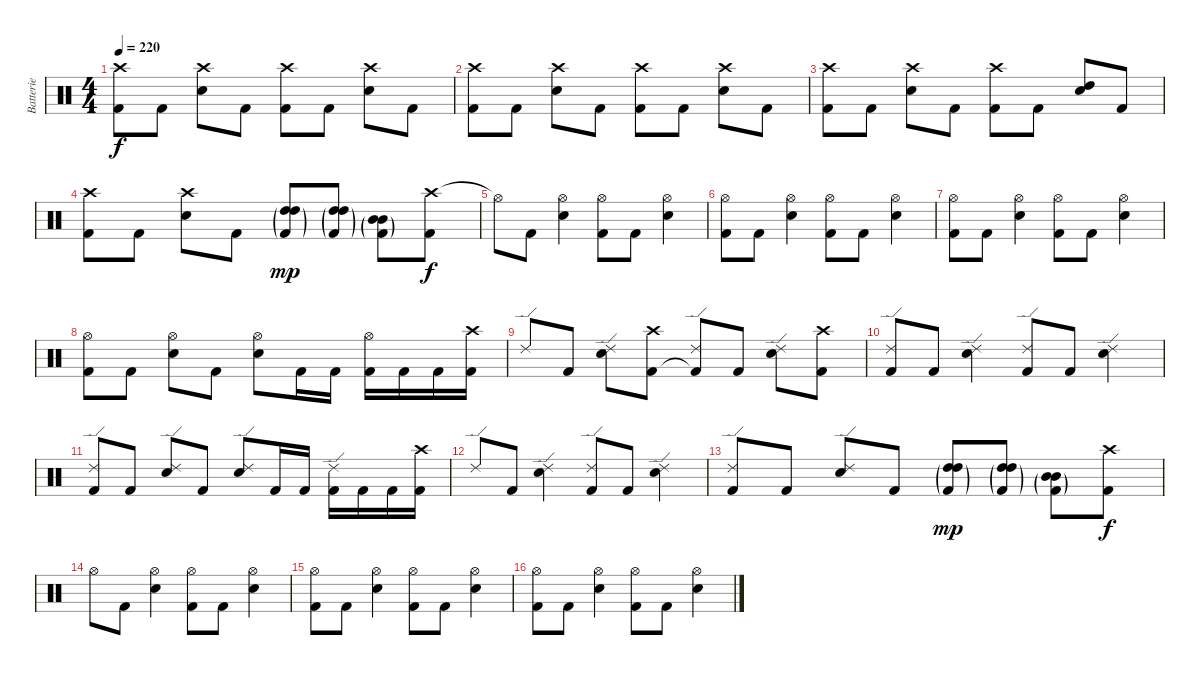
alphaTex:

\track ("Batterie" "Batterie") {instrument percussion}
\staff {score}
\articulation defaults
\ts (4 4)
\tempo 220
\clef neutral
\ks c
("Crash high (hit)" "Kick (hit) 2").8{dy f} "Kick (hit) 2".8 ("Crash high (hit)" "Electric Snare (hit)").8 "Kick (hit) 2".8 ("Crash high (hit)" "Kick (hit) 2").8 "Kick (hit) 2".8 ("Crash high (hit)" "Electric Snare (hit)").8 "Kick (hit) 2".8 |
("Crash high (hit)" "Kick (hit) 2").8 "Kick (hit) 2".8 ("Crash high (hit)" "Electric Snare (hit)").8 "Kick (hit) 2".8 ("Crash high (hit)" "Kick (hit) 2").8 "Kick (hit) 2".8 ("Crash high (hit)" "Electric Snare (hit)").8 "Kick (hit) 2".8 |
("Crash high (hit)" "Kick (hit) 2").8 "Kick (hit) 2".8 ("Crash high (hit)" "Electric Snare (hit)").8 "Kick (hit) 2".8 ("Crash high (hit)" "Kick (hit) 2").8 "Kick (hit) 2".8 ("High Tom (hit)" "Electric Snare (hit)").8 "Kick (hit) 2".8 |
("Crash high (hit)" "Kick (hit) 2").8 "Kick (hit) 2".8 ("Crash high (hit)" "Electric Snare (hit)").8 "Kick (hit) 2".8 ("High Tom (hit)" "High Tom (hit)"{g} "Kick (hit) 2"{g}).8{dy mp} ("High Tom (hit)" "High Tom (hit)"{g} "Kick (hit) 2"{g}).8 ("Mid Tom (hit)" "Mid Tom (hit)"{g} "Kick (hit) 2"{g}).8 ("Crash high (hit)" "Kick (hit) 2").8{dy f} |
"Hi-Hat (open)"{t}.8 "Kick (hit) 2".8 ("Hi-Hat (open)" "Electric Snare (hit)").4 ("Hi-Hat (open)" "Kick (hit) 2").8 "Kick (hit) 2".8 ("Hi-Hat (open)" "Electric Snare (hit)").4 |
("Hi-Hat (open)" "Kick (hit) 2").8 "Kick (hit) 2".8 ("Hi-Hat (open)" "Electric Snare (hit)").4 ("Hi-Hat (open)" "Kick (hit) 2").8 "Kick (hit) 2".8 ("Hi-Hat (open)" "Electric Snare (hit)").4 |
("Hi-Hat (open)" "Kick (hit) 2").8 "Kick (hit) 2".8 ("Hi-Hat (open)" "Electric Snare (hit)").4 ("Hi-Hat (open)" "Kick (hit) 2").8 "Kick (hit) 2".8 ("Hi-Hat (open)" "Electric Snare (hit)").4 |
("Hi-Hat (open)" "Kick (hit) 2").8 "Kick (hit) 2".8 ("Hi-Hat (open)" "Electric Snare (hit)").8 "Kick (hit) 2".8 ("Hi-Hat (open)" "Electric Snare (hit)").8 "Kick (hit) 2".16 "Kick (hit) 2".16 ("Hi-Hat (open)" "Kick (hit) 2").16 "Kick (hit) 2".16 "Kick (hit) 2".16 ("Crash high (hit)" "Kick (hit) 2").16 |
"Ride (edge) 2".8 "Kick (hit) 2".8 ("Ride (edge) 2" "Electric Snare (hit)").8 ("Crash high (hit)" "Kick (hit) 2").8 ("Ride (edge) 2" "Kick (hit) 2"{t}).8 "Kick (hit) 2".8 ("Ride (edge) 2" "Electric Snare (hit)").8 ("Crash high (hit)" "Kick (hit) 2").8 |
("Ride (edge) 2" "Kick (hit) 2").8 "Kick (hit) 2".8 ("Ride (edge) 2" "Electric Snare (hit)").4 ("Ride (edge) 2" "Kick (hit) 2").8 "Kick (hit) 2".8 ("Ride (edge) 2" "Electric Snare (hit)").4 |
("Ride (edge) 2" "Kick (hit) 2").8 "Kick (hit) 2".8 ("Ride (edge) 2" "Electric Snare (hit)").8 "Kick (hit) 2".8 ("Ride (edge) 2" "Electric Snare (hit)").8 "Kick (hit) 2".16 "Kick (hit) 2".16 ("Ride (edge) 2" "Kick (hit) 2").16 "Kick (hit) 2".16 "Kick (hit) 2".16 ("Crash high (hit)" "Kick (hit) 2").16 |
"Ride (edge) 2".8 "Kick (hit) 2".8 ("Ride (edge) 2" "Electric Snare (hit)").4 ("Ride (edge) 2" "Kick (hit) 2").8 "Kick (hit) 2".8 ("Ride (edge) 2" "Electric Snare (hit)").4 |
("Ride (edge) 2" "Kick (hit) 2").8 "Kick (hit) 2".8 ("Ride (edge) 2" "Electric Snare (hit)").8 "Kick (hit) 2".8 ("High Tom (hit)" "High Tom (hit)"{g} "Kick (hit) 2"{g}).8{dy mp} ("High Tom (hit)" "High Tom (hit)"{g} "Kick (hit) 2"{g}).8 ("Mid Tom (hit)" "Mid Tom (hit)"{g} "Kick (hit) 2"{g}).8 ("Crash high (hit)" "Kick (hit) 2").8{dy f} |
"Hi-Hat (open)".8 "Kick (hit) 2".8 ("Hi-Hat (open)" "Electric Snare (hit)").4 ("Hi-Hat (open)" "Kick (hit) 2").8 "Kick (hit) 2".8 ("Hi-Hat (open)" "Electric Snare (hit)").4 |
("Hi-Hat (open)" "Kick (hit) 2").8 "Kick (hit) 2".8 ("Hi-Hat (open)" "Electric Snare (hit)").4 ("Hi-Hat (open)" "Kick (hit) 2").8 "Kick (hit) 2".8 ("Hi-Hat (open)" "Electric Snare (hit)").4 |
("Hi-Hat (open)" "Kick (hit) 2").8 "Kick (hit) 2".8 ("Hi-Hat (open)" "Electric Snare (hit)").4 ("Hi-Hat (open)" "Kick (hit) 2").8 "Kick (hit) 2".8 ("Hi-Hat (open)" "Electric Snare (hit)").4
